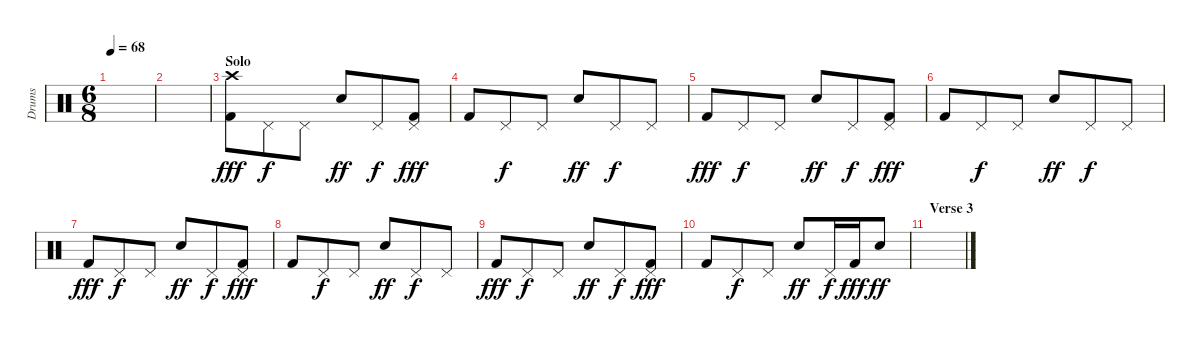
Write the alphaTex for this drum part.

\track ("Drums" "Drums") {instrument percussion}
\staff {score}
\articulation defaults
\ts (6 8)
\tempo 68
\clef neutral
\ks c
|
|
\section ("" "Solo")
("Crash high (hit)" "Kick (hit) 2").8{dy fff} "Pedal Hi-Hat (hit)".8{dy f} "Pedal Hi-Hat (hit)".8 "Snare (hit) 2".8{dy ff} "Pedal Hi-Hat (hit)".8{dy f} ("Pedal Hi-Hat (hit)" "Kick (hit) 2").8{dy fff} |
"Kick (hit) 2".8 "Pedal Hi-Hat (hit)".8{dy f} "Pedal Hi-Hat (hit)".8 "Snare (hit) 2".8{dy ff} "Pedal Hi-Hat (hit)".8{dy f} "Pedal Hi-Hat (hit)".8 |
"Kick (hit) 2".8{dy fff} "Pedal Hi-Hat (hit)".8{dy f} "Pedal Hi-Hat (hit)".8 "Snare (hit) 2".8{dy ff} "Pedal Hi-Hat (hit)".8{dy f} ("Pedal Hi-Hat (hit)" "Kick (hit) 2").8{dy fff} |
"Kick (hit) 2".8 "Pedal Hi-Hat (hit)".8{dy f} "Pedal Hi-Hat (hit)".8 "Snare (hit) 2".8{dy ff} "Pedal Hi-Hat (hit)".8{dy f} "Pedal Hi-Hat (hit)".8 |
"Kick (hit) 2".8{dy fff} "Pedal Hi-Hat (hit)".8{dy f} "Pedal Hi-Hat (hit)".8 "Snare (hit) 2".8{dy ff} "Pedal Hi-Hat (hit)".8{dy f} ("Pedal Hi-Hat (hit)" "Kick (hit) 2").8{dy fff} |
"Kick (hit) 2".8 "Pedal Hi-Hat (hit)".8{dy f} "Pedal Hi-Hat (hit)".8 "Snare (hit) 2".8{dy ff} "Pedal Hi-Hat (hit)".8{dy f} "Pedal Hi-Hat (hit)".8 |
"Kick (hit) 2".8{dy fff} "Pedal Hi-Hat (hit)".8{dy f} "Pedal Hi-Hat (hit)".8 "Snare (hit) 2".8{dy ff} "Pedal Hi-Hat (hit)".8{dy f} ("Pedal Hi-Hat (hit)" "Kick (hit) 2").8{dy fff} |
"Kick (hit) 2".8 "Pedal Hi-Hat (hit)".8{dy f} "Pedal Hi-Hat (hit)".8 "Snare (hit) 2".8{dy ff} "Pedal Hi-Hat (hit)".16{dy f} "Kick (hit) 2".16{dy fff} "Snare (hit) 2".8{dy ff} |
\section ("" "Verse 3")
